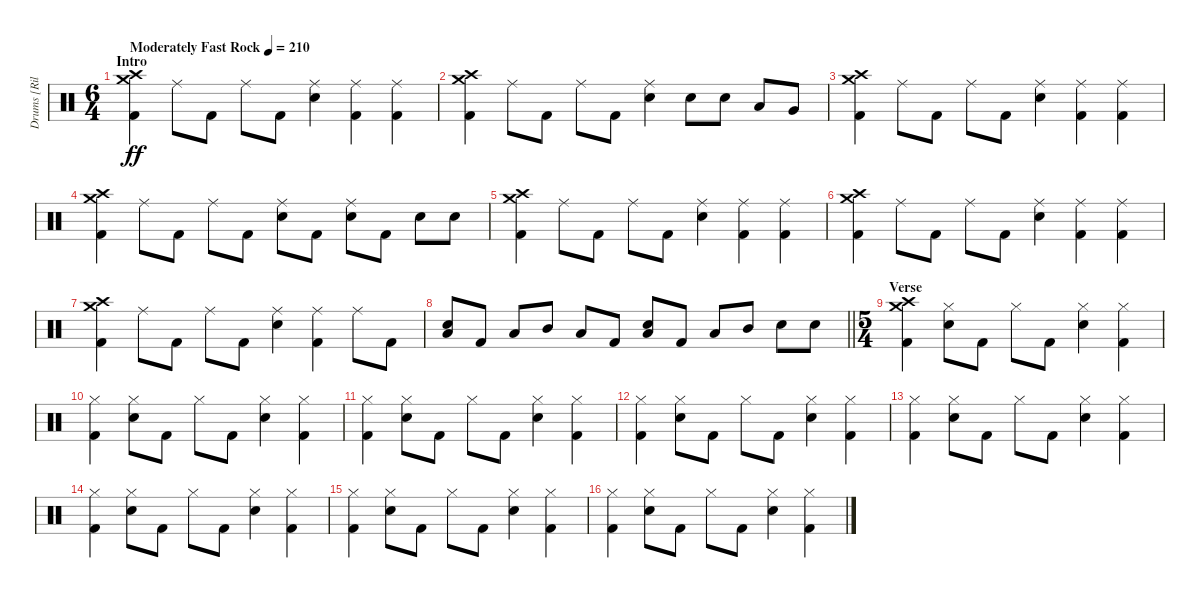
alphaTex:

\track ("Drums [Riley]" "Drums [Ril") {instrument percussion}
\staff {score}
\articulation defaults
\ts (6 4)
\section ("" "Intro")
\tempo (210 "Moderately Fast Rock")
\clef neutral
\ks c
("Crash medium (hit)" "Crash high (hit)" "Kick (hit) 2").4{dy ff} "Ride (middle)".8 "Kick (hit) 2".8 "Ride (middle)".8 "Kick (hit) 2".8 ("Ride (middle)" "Electric Snare (hit)").4 ("Ride (middle)" "Kick (hit) 2").4 ("Ride (middle)" "Kick (hit) 2").4 |
("Crash medium (hit)" "Crash high (hit)" "Kick (hit) 2").4 "Ride (middle)".8 "Kick (hit) 2".8 "Ride (middle)".8 "Kick (hit) 2".8 ("Ride (middle)" "Electric Snare (hit)").4 "Electric Snare (hit)".8 "Electric Snare (hit)".8 "Low Tom (hit)".8 "Very Low Tom (hit)".8 |
("Crash medium (hit)" "Crash high (hit)" "Kick (hit) 2").4 "Ride (middle)".8 "Kick (hit) 2".8 "Ride (middle)".8 "Kick (hit) 2".8 ("Ride (middle)" "Electric Snare (hit)").4 ("Ride (middle)" "Kick (hit) 2").4 ("Ride (middle)" "Kick (hit) 2").4 |
("Crash medium (hit)" "Crash high (hit)" "Kick (hit) 2").4 "Ride (middle)".8 "Kick (hit) 2".8 "Ride (middle)".8 "Kick (hit) 2".8 ("Ride (middle)" "Electric Snare (hit)").8 "Kick (hit) 2".8 ("Ride (middle)" "Electric Snare (hit)").8 "Kick (hit) 2".8 "Electric Snare (hit)".8 "Electric Snare (hit)".8 |
("Crash medium (hit)" "Crash high (hit)" "Kick (hit) 2").4 "Ride (middle)".8 "Kick (hit) 2".8 "Ride (middle)".8 "Kick (hit) 2".8 ("Ride (middle)" "Electric Snare (hit)").4 ("Ride (middle)" "Kick (hit) 2").4 ("Ride (middle)" "Kick (hit) 2").4 |
("Crash medium (hit)" "Crash high (hit)" "Kick (hit) 2").4 "Ride (middle)".8 "Kick (hit) 2".8 "Ride (middle)".8 "Kick (hit) 2".8 ("Ride (middle)" "Electric Snare (hit)").4 ("Ride (middle)" "Kick (hit) 2").4 ("Ride (middle)" "Kick (hit) 2").4 |
("Crash medium (hit)" "Crash high (hit)" "Kick (hit) 2").4 "Ride (middle)".8 "Kick (hit) 2".8 "Ride (middle)".8 "Kick (hit) 2".8 ("Ride (middle)" "Electric Snare (hit)").4 ("Ride (middle)" "Kick (hit) 2").4 "Ride (middle)".8 "Kick (hit) 2".8 |
\barLineRight lightlight
("Low Tom (hit)" "Electric Snare (hit)").8{bu 60} "Kick (hit) 2".8 "Low Tom (hit)".8 "Mid Tom (hit)".8 "Low Tom (hit)".8 "Kick (hit) 2".8 ("Low Tom (hit)" "Electric Snare (hit)").8{bu 60} "Kick (hit) 2".8 "Low Tom (hit)".8 "Mid Tom (hit)".8 "Electric Snare (hit)".8 "Electric Snare (hit)".8 |
\ts (5 4)
\section ("" "Verse")
("Crash medium (hit)" "Crash high (hit)" "Kick (hit) 2").4 ("Hi-Hat (closed)" "Electric Snare (hit)").8 "Kick (hit) 2".8 "Hi-Hat (closed)".8 "Kick (hit) 2".8 ("Hi-Hat (closed)" "Electric Snare (hit)").4 ("Hi-Hat (closed)" "Kick (hit) 2").4 |
("Hi-Hat (closed)" "Kick (hit) 2").4 ("Hi-Hat (closed)" "Electric Snare (hit)").8 "Kick (hit) 2".8 "Hi-Hat (closed)".8 "Kick (hit) 2".8 ("Hi-Hat (closed)" "Electric Snare (hit)").4 ("Hi-Hat (closed)" "Kick (hit) 2").4 |
("Hi-Hat (closed)" "Kick (hit) 2").4 ("Hi-Hat (closed)" "Electric Snare (hit)").8 "Kick (hit) 2".8 "Hi-Hat (closed)".8 "Kick (hit) 2".8 ("Hi-Hat (closed)" "Electric Snare (hit)").4 ("Hi-Hat (closed)" "Kick (hit) 2").4 |
("Hi-Hat (closed)" "Kick (hit) 2").4 ("Hi-Hat (closed)" "Electric Snare (hit)").8 "Kick (hit) 2".8 "Hi-Hat (closed)".8 "Kick (hit) 2".8 ("Hi-Hat (closed)" "Electric Snare (hit)").4 ("Hi-Hat (closed)" "Kick (hit) 2").4 |
("Hi-Hat (closed)" "Kick (hit) 2").4 ("Hi-Hat (closed)" "Electric Snare (hit)").8 "Kick (hit) 2".8 "Hi-Hat (closed)".8 "Kick (hit) 2".8 ("Hi-Hat (closed)" "Electric Snare (hit)").4 ("Hi-Hat (closed)" "Kick (hit) 2").4 |
("Hi-Hat (closed)" "Kick (hit) 2").4 ("Hi-Hat (closed)" "Electric Snare (hit)").8 "Kick (hit) 2".8 "Hi-Hat (closed)".8 "Kick (hit) 2".8 ("Hi-Hat (closed)" "Electric Snare (hit)").4 ("Hi-Hat (closed)" "Kick (hit) 2").4 |
("Hi-Hat (closed)" "Kick (hit) 2").4 ("Hi-Hat (closed)" "Electric Snare (hit)").8 "Kick (hit) 2".8 "Hi-Hat (closed)".8 "Kick (hit) 2".8 ("Hi-Hat (closed)" "Electric Snare (hit)").4 ("Hi-Hat (closed)" "Kick (hit) 2").4 |
("Hi-Hat (closed)" "Kick (hit) 2").4 ("Hi-Hat (closed)" "Electric Snare (hit)").8 "Kick (hit) 2".8 "Hi-Hat (closed)".8 "Kick (hit) 2".8 ("Hi-Hat (closed)" "Electric Snare (hit)").4 ("Hi-Hat (closed)" "Kick (hit) 2").4
